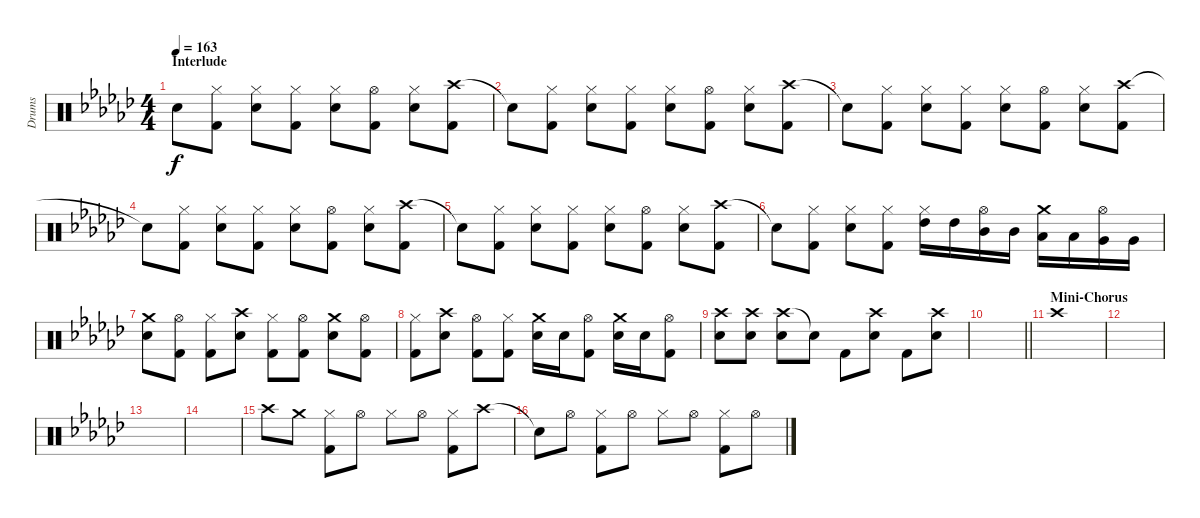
\track ("Drums" "Drums") {mute instrument percussion}
\staff {score}
\articulation defaults
\ts (4 4)
\section ("" "Interlude")
\tempo 163
\clef neutral
\ks gb "Snare (hit)"{t}.8{dy f}
("Hi-Hat (closed)" "Kick (hit) 2").8 ("Hi-Hat (closed)" "Snare (hit) 2").8 ("Hi-Hat (closed)" "Kick (hit) 2").8 ("Hi-Hat (closed)" "Snare (hit) 2").8 ("Hi-Hat (open)" "Kick (hit) 2").8 ("Hi-Hat (closed)" "Snare (hit) 2").8 ("Crash high (hit)" "Kick (hit) 2").8 |
"Snare (hit)"{t}.8 ("Hi-Hat (closed)" "Kick (hit) 2").8 ("Hi-Hat (closed)" "Snare (hit) 2").8 ("Hi-Hat (closed)" "Kick (hit) 2").8 ("Hi-Hat (closed)" "Snare (hit) 2").8 ("Hi-Hat (open)" "Kick (hit) 2").8 ("Hi-Hat (closed)" "Snare (hit) 2").8 ("Crash high (hit)" "Kick (hit) 2").8 |
"Snare (hit)"{t}.8 ("Hi-Hat (closed)" "Kick (hit) 2").8 ("Hi-Hat (closed)" "Snare (hit) 2").8 ("Hi-Hat (closed)" "Kick (hit) 2").8 ("Hi-Hat (closed)" "Snare (hit) 2").8 ("Hi-Hat (open)" "Kick (hit) 2").8 ("Hi-Hat (closed)" "Snare (hit) 2").8 ("Crash high (hit)" "Kick (hit) 2").8 |
"Snare (hit)"{t}.8 ("Hi-Hat (closed)" "Kick (hit) 2").8 ("Hi-Hat (closed)" "Snare (hit) 2").8 ("Hi-Hat (closed)" "Kick (hit) 2").8 ("Hi-Hat (closed)" "Snare (hit) 2").8 ("Hi-Hat (open)" "Kick (hit) 2").8 ("Hi-Hat (closed)" "Snare (hit) 2").8 ("Crash high (hit)" "Kick (hit) 2").8 |
"Snare (hit)"{t}.8 ("Hi-Hat (closed)" "Kick (hit) 2").8 ("Hi-Hat (closed)" "Snare (hit) 2").8 ("Hi-Hat (closed)" "Kick (hit) 2").8 ("Hi-Hat (closed)" "Snare (hit) 2").8 ("Hi-Hat (open)" "Kick (hit) 2").8 ("Hi-Hat (closed)" "Snare (hit) 2").8 ("Crash high (hit)" "Kick (hit) 2").8 |
"Snare (hit)"{t}.8 ("Hi-Hat (closed)" "Kick (hit) 2").8 ("Hi-Hat (closed)" "Snare (hit) 2").8 ("Hi-Hat (closed)" "Kick (hit) 2").8 ("Hi-Hat (closed)" "High Tom (hit)").16 "High Tom (hit)".16 ("Hi-Hat (open)" "Mid Tom (hit)").16 "Mid Tom (hit)".16 ("Crash medium (hit)" "Low Tom (hit)").16 "Low Tom (hit)".16 ("Hi-Hat (open)" "Very Low Tom (hit)").16 "Very Low Tom (hit)".16 |
("Crash medium (hit)" "Snare (hit) 2").8 ("Hi-Hat (open)" "Kick (hit) 2").8 ("Hi-Hat (closed)" "Kick (hit) 2").8 ("Crash high (hit)" "Snare (hit) 2").8 ("Hi-Hat (closed)" "Kick (hit) 2").8 ("Hi-Hat (open)" "Kick (hit) 2").8 ("Crash medium (hit)" "Snare (hit) 2").8 ("Hi-Hat (open)" "Kick (hit) 2").8 |
("Hi-Hat (closed)" "Kick (hit) 2").8 ("Crash high (hit)" "Snare (hit) 2").8 ("Hi-Hat (open)" "Kick (hit) 2").8 ("Hi-Hat (closed)" "Kick (hit) 2").8 ("Crash medium (hit)" "Snare (hit) 2").16 "Snare (hit) 2".16 ("Hi-Hat (open)" "Kick (hit) 2").8 ("Crash medium (hit)" "Snare (hit) 2").16 "Snare (hit) 2".16 ("Hi-Hat (open)" "Kick (hit) 2").8 |
("Crash high (hit)" "Snare (hit) 2").8 ("Crash high (hit)" "Snare (hit) 2").8 ("Crash high (hit)" "Snare (hit) 2").8 "Snare (hit)"{t}.8 "Kick (hit) 2".8 ("Crash high (hit)" "Snare (hit) 2").8 "Kick (hit) 2".8 ("Crash high (hit)" "Snare (hit) 2").8 |
\barLineRight lightlight
|
\section ("" "Mini-Chorus")
"Crash high (hit)".1 |
|
|
|
"Crash high (hit)".8 "Crash medium (hit)".8 ("Hi-Hat (closed)" "Kick (hit) 2").8 "Hi-Hat (open)".8 "Hi-Hat (closed)".8 "Hi-Hat (open)".8 ("Hi-Hat (closed)" "Kick (hit) 2").8 "Crash high (hit)".8 |
"Snare (hit)"{t}.8 "Hi-Hat (open)".8 ("Hi-Hat (closed)" "Kick (hit) 2").8 "Hi-Hat (open)".8 "Hi-Hat (closed)".8 "Hi-Hat (open)".8 ("Hi-Hat (closed)" "Kick (hit) 2").8 "Hi-Hat (open)".8
